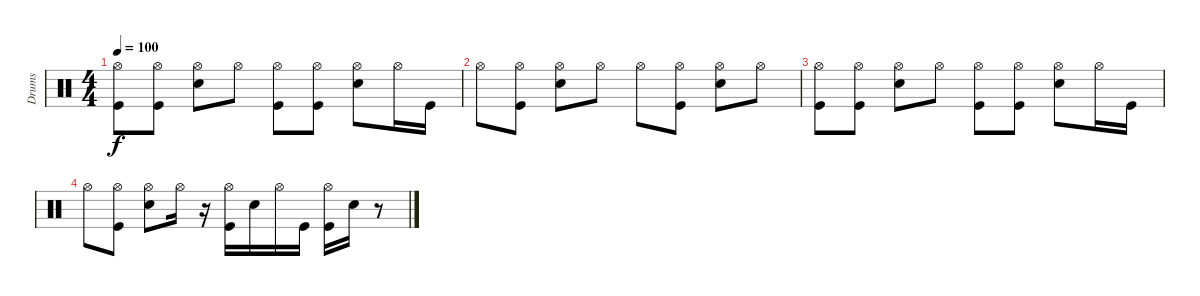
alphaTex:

\track ("Drums" "Drums") {instrument percussion}
\staff {score}
\articulation defaults
\ts (4 4)
\tempo 100
\clef neutral
\ks c
("Kick (hit)" "Hi-Hat (open)").8{dy f} ("Kick (hit)" "Hi-Hat (open)").8 ("Electric Snare (hit)" "Hi-Hat (open)").8 "Hi-Hat (open)".8 ("Kick (hit)" "Hi-Hat (open)").8 ("Kick (hit)" "Hi-Hat (open)").8 ("Electric Snare (hit)" "Hi-Hat (open)").8 "Hi-Hat (open)".16 "Kick (hit)".16 |
"Hi-Hat (open)".8 ("Kick (hit)" "Hi-Hat (open)").8 ("Electric Snare (hit)" "Hi-Hat (open)").8 "Hi-Hat (open)".8 "Hi-Hat (open)".8 ("Kick (hit)" "Hi-Hat (open)").8 ("Electric Snare (hit)" "Hi-Hat (open)").8 "Hi-Hat (open)".8 |
("Kick (hit)" "Hi-Hat (open)").8 ("Kick (hit)" "Hi-Hat (open)").8 ("Electric Snare (hit)" "Hi-Hat (open)").8 "Hi-Hat (open)".8 ("Kick (hit)" "Hi-Hat (open)").8 ("Kick (hit)" "Hi-Hat (open)").8 ("Electric Snare (hit)" "Hi-Hat (open)").8 "Hi-Hat (open)".16 "Kick (hit)".16 |
"Hi-Hat (open)".8 ("Kick (hit)" "Hi-Hat (open)").8 ("Electric Snare (hit)" "Hi-Hat (open)").8 "Hi-Hat (open)".16 r.16 ("Kick (hit)" "Hi-Hat (open)").16 "Electric Snare (hit)".16 "Hi-Hat (open)".16 "Kick (hit)".16 ("Kick (hit)" "Hi-Hat (open)").16 "Electric Snare (hit)".16 r.8
